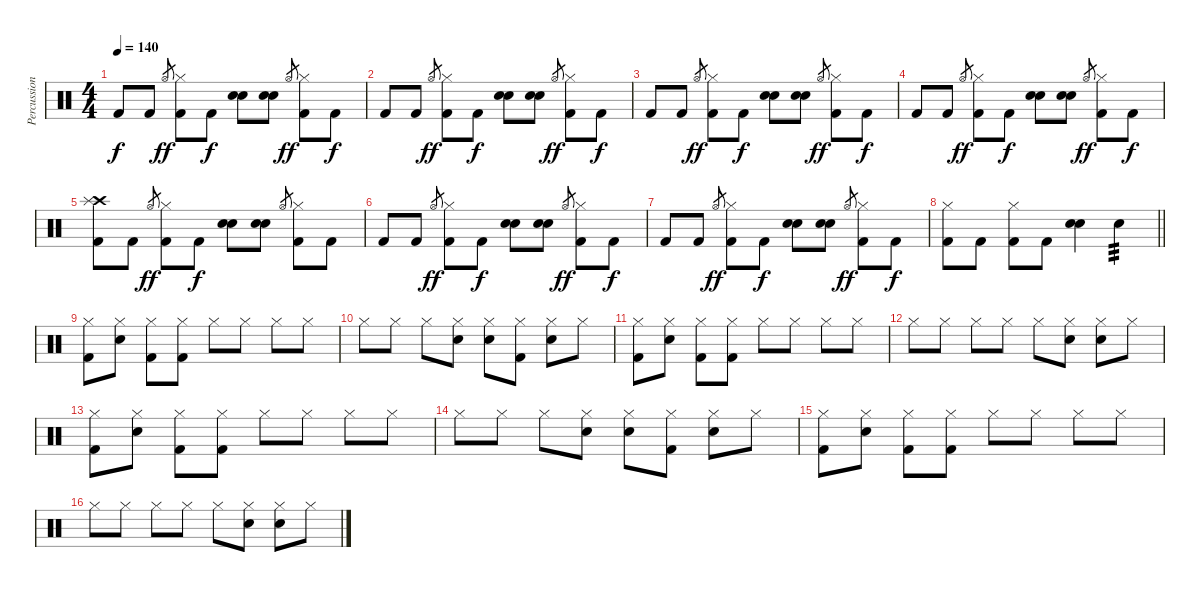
\track ("Percussion" "Percussion") {instrument percussion}
\staff {score}
\articulation defaults
\ts (4 4)
\tempo 140
\clef neutral
\ks c "Kick (hit) 2".8{dy f} "Kick (hit) 2".8 "Hi-Hat (open)".8{gr dy ff}
("Hi-Hat (closed)" "Kick (hit) 2").8 "Kick (hit) 2".8{dy f} ("Electric Snare (hit)" "Electric Snare (hit)").8 ("Electric Snare (hit)" "Electric Snare (hit)").8 "Hi-Hat (open)".8{gr dy ff} ("Hi-Hat (closed)" "Kick (hit) 2").8 "Kick (hit) 2".8{dy f} |
"Kick (hit) 2".8 "Kick (hit) 2".8 "Hi-Hat (open)".8{gr dy ff} ("Hi-Hat (closed)" "Kick (hit) 2").8 "Kick (hit) 2".8{dy f} ("Electric Snare (hit)" "Electric Snare (hit)").8 ("Electric Snare (hit)" "Electric Snare (hit)").8 "Hi-Hat (open)".8{gr dy ff} ("Hi-Hat (closed)" "Kick (hit) 2").8 "Kick (hit) 2".8{dy f} |
"Kick (hit) 2".8 "Kick (hit) 2".8 "Hi-Hat (open)".8{gr dy ff} ("Hi-Hat (closed)" "Kick (hit) 2").8 "Kick (hit) 2".8{dy f} ("Electric Snare (hit)" "Electric Snare (hit)").8 ("Electric Snare (hit)" "Electric Snare (hit)").8 "Hi-Hat (open)".8{gr dy ff} ("Hi-Hat (closed)" "Kick (hit) 2").8 "Kick (hit) 2".8{dy f} |
"Kick (hit) 2".8 "Kick (hit) 2".8 "Hi-Hat (open)".8{gr dy ff} ("Hi-Hat (closed)" "Kick (hit) 2").8 "Kick (hit) 2".8{dy f} ("Electric Snare (hit)" "Electric Snare (hit)").8 ("Electric Snare (hit)" "Electric Snare (hit)").8 "Hi-Hat (open)".8{gr dy ff} ("Hi-Hat (closed)" "Kick (hit) 2").8 "Kick (hit) 2".8{dy f} |
("Crash high (hit)" "Splash (hit)" "Kick (hit) 2").8 "Kick (hit) 2".8 "Hi-Hat (open)".8{gr dy ff} ("Hi-Hat (closed)" "Kick (hit) 2").8 "Kick (hit) 2".8{dy f} ("Electric Snare (hit)" "Electric Snare (hit)").8 ("Electric Snare (hit)" "Electric Snare (hit)").8 "Hi-Hat (open)".8{gr} ("Hi-Hat (closed)" "Kick (hit) 2").8 "Kick (hit) 2".8 |
"Kick (hit) 2".8 "Kick (hit) 2".8 "Hi-Hat (open)".8{gr dy ff} ("Hi-Hat (closed)" "Kick (hit) 2").8 "Kick (hit) 2".8{dy f} ("Electric Snare (hit)" "Electric Snare (hit)").8 ("Electric Snare (hit)" "Electric Snare (hit)").8 "Hi-Hat (open)".8{gr dy ff} ("Hi-Hat (closed)" "Kick (hit) 2").8 "Kick (hit) 2".8{dy f} |
"Kick (hit) 2".8 "Kick (hit) 2".8 "Hi-Hat (open)".8{gr dy ff} ("Hi-Hat (closed)" "Kick (hit) 2").8 "Kick (hit) 2".8{dy f} ("Electric Snare (hit)" "Electric Snare (hit)").8 ("Electric Snare (hit)" "Electric Snare (hit)").8 "Hi-Hat (open)".8{gr dy ff} ("Hi-Hat (closed)" "Kick (hit) 2").8 "Kick (hit) 2".8{dy f} |
\barLineRight lightlight
("Hi-Hat (closed)" "Kick (hit) 2").8 "Kick (hit) 2".8 ("Hi-Hat (closed)" "Kick (hit) 2").8 "Kick (hit) 2".8 ("Electric Snare (hit)" "Electric Snare (hit)").4 "Electric Snare (hit)".4{tp 3} |
("Hi-Hat (closed)" "Kick (hit) 2").8 ("Hi-Hat (closed)" "Electric Snare (hit)").8 ("Hi-Hat (closed)" "Kick (hit) 2").8 ("Hi-Hat (closed)" "Kick (hit) 2").8 "Hi-Hat (closed)".8 "Hi-Hat (closed)".8 "Hi-Hat (closed)".8 "Hi-Hat (closed)".8 |
"Hi-Hat (closed)".8 "Hi-Hat (closed)".8 "Hi-Hat (closed)".8 ("Hi-Hat (closed)" "Electric Snare (hit)").8 ("Hi-Hat (closed)" "Electric Snare (hit)").8 ("Hi-Hat (closed)" "Kick (hit) 2").8 ("Hi-Hat (closed)" "Electric Snare (hit)").8 "Hi-Hat (closed)".8 |
("Hi-Hat (closed)" "Kick (hit) 2").8 ("Hi-Hat (closed)" "Electric Snare (hit)").8 ("Hi-Hat (closed)" "Kick (hit) 2").8 ("Hi-Hat (closed)" "Kick (hit) 2").8 "Hi-Hat (closed)".8 "Hi-Hat (closed)".8 "Hi-Hat (closed)".8 "Hi-Hat (closed)".8 |
"Hi-Hat (closed)".8 "Hi-Hat (closed)".8 "Hi-Hat (closed)".8 "Hi-Hat (closed)".8 "Hi-Hat (closed)".8 ("Hi-Hat (closed)" "Electric Snare (hit)").8 ("Hi-Hat (closed)" "Electric Snare (hit)").8 "Hi-Hat (closed)".8 |
("Hi-Hat (closed)" "Kick (hit) 2").8 ("Hi-Hat (closed)" "Electric Snare (hit)").8 ("Hi-Hat (closed)" "Kick (hit) 2").8 ("Hi-Hat (closed)" "Kick (hit) 2").8 "Hi-Hat (closed)".8 "Hi-Hat (closed)".8 "Hi-Hat (closed)".8 "Hi-Hat (closed)".8 |
"Hi-Hat (closed)".8 "Hi-Hat (closed)".8 "Hi-Hat (closed)".8 ("Hi-Hat (closed)" "Electric Snare (hit)").8 ("Hi-Hat (closed)" "Electric Snare (hit)").8 ("Hi-Hat (closed)" "Kick (hit) 2").8 ("Hi-Hat (closed)" "Electric Snare (hit)").8 "Hi-Hat (closed)".8 |
("Hi-Hat (closed)" "Kick (hit) 2").8 ("Hi-Hat (closed)" "Electric Snare (hit)").8 ("Hi-Hat (closed)" "Kick (hit) 2").8 ("Hi-Hat (closed)" "Kick (hit) 2").8 "Hi-Hat (closed)".8 "Hi-Hat (closed)".8 "Hi-Hat (closed)".8 "Hi-Hat (closed)".8 |
"Hi-Hat (closed)".8 "Hi-Hat (closed)".8 "Hi-Hat (closed)".8 "Hi-Hat (closed)".8 "Hi-Hat (closed)".8 ("Hi-Hat (closed)" "Electric Snare (hit)").8 ("Hi-Hat (closed)" "Electric Snare (hit)").8 "Hi-Hat (closed)".8
